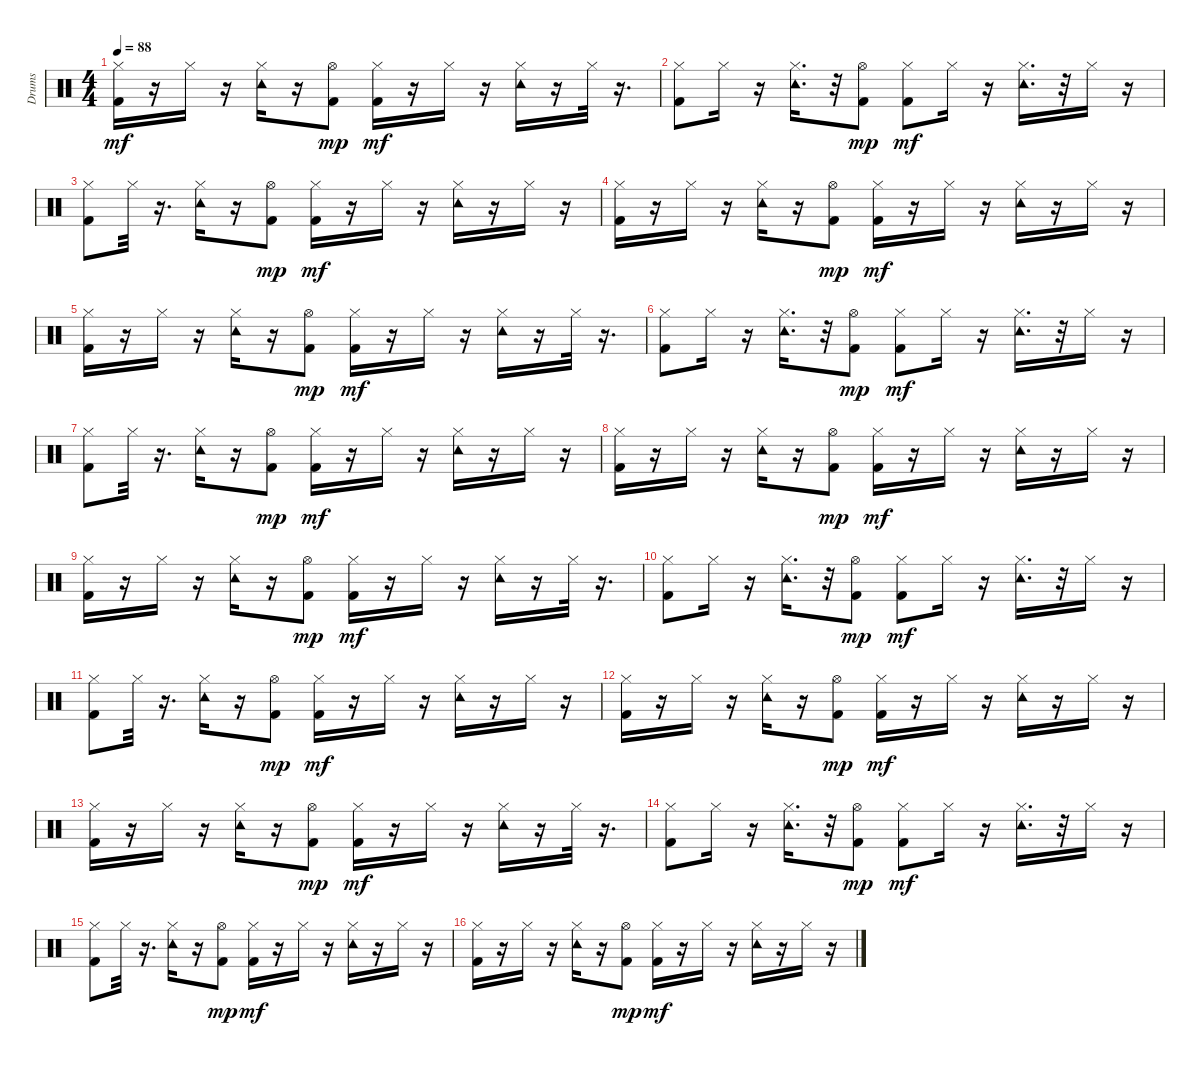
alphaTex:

\track ("Drums" "Drums") {instrument percussion}
\staff {score}
\articulation defaults
\ts (4 4)
\tempo 88
\clef neutral
\ks c
("Kick (hit) 2" "Hi-Hat (closed)").16{dy mf} r.16 "Hi-Hat (closed)".16 r.16 ("Tambourine (hit)" "Hi-Hat (closed)").16 r.16 ("Kick (hit) 2" "Hi-Hat (open)").8{dy mp} ("Kick (hit) 2" "Hi-Hat (closed)").16{dy mf} r.16 "Hi-Hat (closed)".16 r.16 ("Tambourine (hit)" "Hi-Hat (closed)").16 r.16 "Hi-Hat (closed)".32 r.16{d} |
("Kick (hit) 2" "Hi-Hat (closed)").8 "Hi-Hat (closed)".16 r.16 ("Tambourine (hit)" "Hi-Hat (closed)").16{d} r.32 ("Kick (hit) 2" "Hi-Hat (open)").8{dy mp} ("Kick (hit) 2" "Hi-Hat (closed)").8{dy mf} "Hi-Hat (closed)".16 r.16 ("Tambourine (hit)" "Hi-Hat (closed)").16{d} r.32 "Hi-Hat (closed)".16 r.16 |
("Kick (hit) 2" "Hi-Hat (closed)").8 "Hi-Hat (closed)".32 r.16{d} ("Tambourine (hit)" "Hi-Hat (closed)").16 r.16 ("Kick (hit) 2" "Hi-Hat (open)").8{dy mp} ("Kick (hit) 2" "Hi-Hat (closed)").16{dy mf} r.16 "Hi-Hat (closed)".16 r.16 ("Tambourine (hit)" "Hi-Hat (closed)").16 r.16 "Hi-Hat (closed)".16 r.16 |
("Kick (hit) 2" "Hi-Hat (closed)").16 r.16 "Hi-Hat (closed)".16 r.16 ("Tambourine (hit)" "Hi-Hat (closed)").16 r.16 ("Kick (hit) 2" "Hi-Hat (open)").8{dy mp} ("Kick (hit) 2" "Hi-Hat (closed)").16{dy mf} r.16 "Hi-Hat (closed)".16 r.16 ("Tambourine (hit)" "Hi-Hat (closed)").16 r.16 "Hi-Hat (closed)".16 r.16 |
("Kick (hit) 2" "Hi-Hat (closed)").16 r.16 "Hi-Hat (closed)".16 r.16 ("Tambourine (hit)" "Hi-Hat (closed)").16 r.16 ("Kick (hit) 2" "Hi-Hat (open)").8{dy mp} ("Kick (hit) 2" "Hi-Hat (closed)").16{dy mf} r.16 "Hi-Hat (closed)".16 r.16 ("Tambourine (hit)" "Hi-Hat (closed)").16 r.16 "Hi-Hat (closed)".32 r.16{d} |
("Kick (hit) 2" "Hi-Hat (closed)").8 "Hi-Hat (closed)".16 r.16 ("Tambourine (hit)" "Hi-Hat (closed)").16{d} r.32 ("Kick (hit) 2" "Hi-Hat (open)").8{dy mp} ("Kick (hit) 2" "Hi-Hat (closed)").8{dy mf} "Hi-Hat (closed)".16 r.16 ("Tambourine (hit)" "Hi-Hat (closed)").16{d} r.32 "Hi-Hat (closed)".16 r.16 |
("Kick (hit) 2" "Hi-Hat (closed)").8 "Hi-Hat (closed)".32 r.16{d} ("Tambourine (hit)" "Hi-Hat (closed)").16 r.16 ("Kick (hit) 2" "Hi-Hat (open)").8{dy mp} ("Kick (hit) 2" "Hi-Hat (closed)").16{dy mf} r.16 "Hi-Hat (closed)".16 r.16 ("Tambourine (hit)" "Hi-Hat (closed)").16 r.16 "Hi-Hat (closed)".16 r.16 |
("Kick (hit) 2" "Hi-Hat (closed)").16 r.16 "Hi-Hat (closed)".16 r.16 ("Tambourine (hit)" "Hi-Hat (closed)").16 r.16 ("Kick (hit) 2" "Hi-Hat (open)").8{dy mp} ("Kick (hit) 2" "Hi-Hat (closed)").16{dy mf} r.16 "Hi-Hat (closed)".16 r.16 ("Tambourine (hit)" "Hi-Hat (closed)").16 r.16 "Hi-Hat (closed)".16 r.16 |
("Kick (hit) 2" "Hi-Hat (closed)").16 r.16 "Hi-Hat (closed)".16 r.16 ("Tambourine (hit)" "Hi-Hat (closed)").16 r.16 ("Kick (hit) 2" "Hi-Hat (open)").8{dy mp} ("Kick (hit) 2" "Hi-Hat (closed)").16{dy mf} r.16 "Hi-Hat (closed)".16 r.16 ("Tambourine (hit)" "Hi-Hat (closed)").16 r.16 "Hi-Hat (closed)".32 r.16{d} |
("Kick (hit) 2" "Hi-Hat (closed)").8 "Hi-Hat (closed)".16 r.16 ("Tambourine (hit)" "Hi-Hat (closed)").16{d} r.32 ("Kick (hit) 2" "Hi-Hat (open)").8{dy mp} ("Kick (hit) 2" "Hi-Hat (closed)").8{dy mf} "Hi-Hat (closed)".16 r.16 ("Tambourine (hit)" "Hi-Hat (closed)").16{d} r.32 "Hi-Hat (closed)".16 r.16 |
("Kick (hit) 2" "Hi-Hat (closed)").8 "Hi-Hat (closed)".32 r.16{d} ("Tambourine (hit)" "Hi-Hat (closed)").16 r.16 ("Kick (hit) 2" "Hi-Hat (open)").8{dy mp} ("Kick (hit) 2" "Hi-Hat (closed)").16{dy mf} r.16 "Hi-Hat (closed)".16 r.16 ("Tambourine (hit)" "Hi-Hat (closed)").16 r.16 "Hi-Hat (closed)".16 r.16 |
("Kick (hit) 2" "Hi-Hat (closed)").16 r.16 "Hi-Hat (closed)".16 r.16 ("Tambourine (hit)" "Hi-Hat (closed)").16 r.16 ("Kick (hit) 2" "Hi-Hat (open)").8{dy mp} ("Kick (hit) 2" "Hi-Hat (closed)").16{dy mf} r.16 "Hi-Hat (closed)".16 r.16 ("Tambourine (hit)" "Hi-Hat (closed)").16 r.16 "Hi-Hat (closed)".16 r.16 |
("Kick (hit) 2" "Hi-Hat (closed)").16 r.16 "Hi-Hat (closed)".16 r.16 ("Tambourine (hit)" "Hi-Hat (closed)").16 r.16 ("Kick (hit) 2" "Hi-Hat (open)").8{dy mp} ("Kick (hit) 2" "Hi-Hat (closed)").16{dy mf} r.16 "Hi-Hat (closed)".16 r.16 ("Tambourine (hit)" "Hi-Hat (closed)").16 r.16 "Hi-Hat (closed)".32 r.16{d} |
("Kick (hit) 2" "Hi-Hat (closed)").8 "Hi-Hat (closed)".16 r.16 ("Tambourine (hit)" "Hi-Hat (closed)").16{d} r.32 ("Kick (hit) 2" "Hi-Hat (open)").8{dy mp} ("Kick (hit) 2" "Hi-Hat (closed)").8{dy mf} "Hi-Hat (closed)".16 r.16 ("Tambourine (hit)" "Hi-Hat (closed)").16{d} r.32 "Hi-Hat (closed)".16 r.16 |
("Kick (hit) 2" "Hi-Hat (closed)").8 "Hi-Hat (closed)".32 r.16{d} ("Tambourine (hit)" "Hi-Hat (closed)").16 r.16 ("Kick (hit) 2" "Hi-Hat (open)").8{dy mp} ("Kick (hit) 2" "Hi-Hat (closed)").16{dy mf} r.16 "Hi-Hat (closed)".16 r.16 ("Tambourine (hit)" "Hi-Hat (closed)").16 r.16 "Hi-Hat (closed)".16 r.16 |
("Kick (hit) 2" "Hi-Hat (closed)").16 r.16 "Hi-Hat (closed)".16 r.16 ("Tambourine (hit)" "Hi-Hat (closed)").16 r.16 ("Kick (hit) 2" "Hi-Hat (open)").8{dy mp} ("Kick (hit) 2" "Hi-Hat (closed)").16{dy mf} r.16 "Hi-Hat (closed)".16 r.16 ("Tambourine (hit)" "Hi-Hat (closed)").16 r.16 "Hi-Hat (closed)".16 r.16
